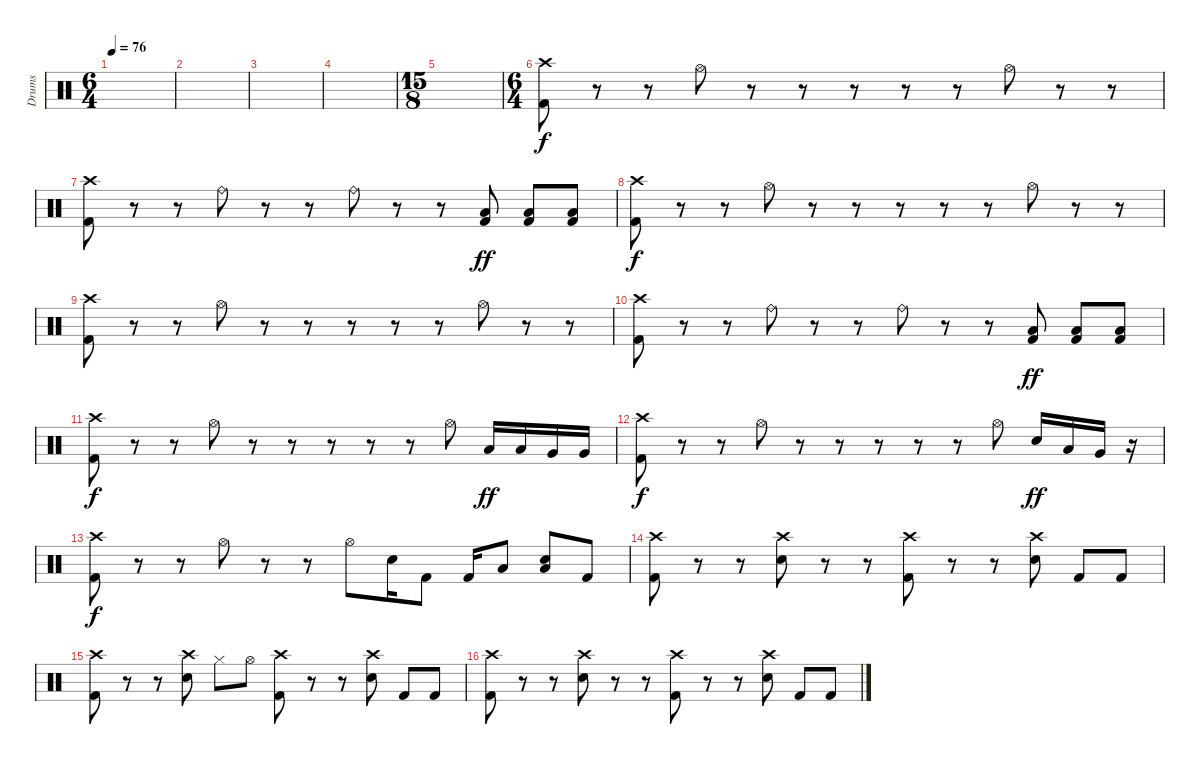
\track ("Drums" "Drums") {instrument percussion}
\staff {score}
\articulation defaults
\ts (6 4)
\tempo 76
\clef neutral
\ks c
|
|
|
|
\ts (15 8)
|
\ts (6 4)
("Kick (hit) 2" "Crash high (hit)").8 r.8 r.8 "Hi-Hat (open)".8 r.8 r.8 r.8 r.8 r.8 "Hi-Hat (open)".8 r.8 r.8 |
("Kick (hit) 2" "Crash high (hit)").8 r.8 r.8 "Ride (bell)".8 r.8 r.8 "Ride (bell)".8 r.8 r.8 ("Kick (hit) 2" "Low Tom (hit)").8{dy ff} ("Kick (hit) 2" "Low Tom (hit)").8 ("Kick (hit) 2" "Low Tom (hit)").8 |
("Kick (hit) 2" "Crash high (hit)").8{dy f} r.8 r.8 "Hi-Hat (open)".8 r.8 r.8 r.8 r.8 r.8 "Hi-Hat (open)".8 r.8 r.8 |
("Kick (hit) 2" "Crash high (hit)").8 r.8 r.8 "Hi-Hat (open)".8 r.8 r.8 r.8 r.8 r.8 "Hi-Hat (open)".8 r.8 r.8 |
("Kick (hit) 2" "Crash high (hit)").8 r.8 r.8 "Ride (bell)".8 r.8 r.8 "Ride (bell)".8 r.8 r.8 ("Kick (hit) 2" "Low Tom (hit)").8{dy ff} ("Kick (hit) 2" "Low Tom (hit)").8 ("Kick (hit) 2" "Low Tom (hit)").8 |
("Kick (hit) 2" "Crash high (hit)").8{dy f} r.8 r.8 "Hi-Hat (open)".8 r.8 r.8 r.8 r.8 r.8 "Hi-Hat (open)".8 "Low Tom (hit)".16{dy ff} "Low Tom (hit)".16 "Very Low Tom (hit)".16 "Very Low Tom (hit)".16 |
("Kick (hit) 2" "Crash high (hit)").8{dy f} r.8 r.8 "Hi-Hat (open)".8 r.8 r.8 r.8 r.8 r.8 "Hi-Hat (open)".8 "Electric Snare (hit)".16{dy ff} "Low Tom (hit)".16 "Very Low Tom (hit)".16 r.16 |
("Kick (hit) 2" "Crash high (hit)").8{dy f} r.8 r.8 "Hi-Hat (open)".8 r.8 r.8 "Hi-Hat (open)".8 "Electric Snare (hit)".16 "Kick (hit) 2".8 "Kick (hit) 2".16 "Low Tom (hit)".8 ("Electric Snare (hit)" "Low Tom (hit)").8 "Kick (hit) 2".8 |
("Kick (hit) 2" "Crash high (hit)").8 r.8 r.8 ("Electric Snare (hit)" "Crash high (hit)").8 r.8 r.8 ("Kick (hit) 2" "Crash high (hit)").8 r.8 r.8 ("Electric Snare (hit)" "Crash high (hit)").8 "Kick (hit) 2".8 "Kick (hit) 2".8 |
("Kick (hit) 2" "Crash high (hit)").8 r.8 r.8 ("Electric Snare (hit)" "Crash high (hit)").8 "Hi-Hat (closed)".8 "Hi-Hat (open)".8 ("Kick (hit) 2" "Crash high (hit)").8 r.8 r.8 ("Electric Snare (hit)" "Crash high (hit)").8 "Kick (hit) 2".8 "Kick (hit) 2".8 |
("Kick (hit) 2" "Crash high (hit)").8 r.8 r.8 ("Electric Snare (hit)" "Crash high (hit)").8 r.8 r.8 ("Kick (hit) 2" "Crash high (hit)").8 r.8 r.8 ("Electric Snare (hit)" "Crash high (hit)").8 "Kick (hit) 2".8 "Kick (hit) 2".8
